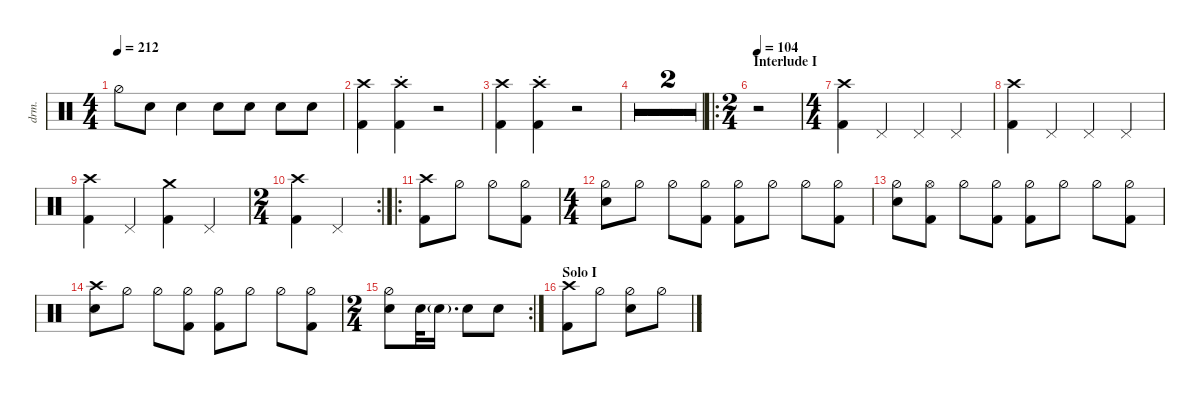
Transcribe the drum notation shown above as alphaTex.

\defaultSystemsLayout 4
\hideDynamics
\bracketExtendMode nobrackets
\track ("Drums" "drm.") {defaultSystemsLayout 4 multiBarRest instrument percussion}
\staff
\articulation defaults
\ts (4 4)
\tempo 212
\clef neutral
\ks c "Hi-Hat (half)".8{dy f} "Snare (hit) 2".8 "Snare (hit) 2".4 "Snare (hit) 2".8 "Snare (hit) 2".8 "Snare (hit) 2".8 "Snare (hit) 2".8
|
("Kick (hit) 2" "Crash high (hit)").4{dy ff} ("Kick (hit) 2" "Crash high (hit)"{st}).4 r.2 |
("Kick (hit) 2" "Crash high (hit)").4 ("Kick (hit) 2" "Crash high (hit)"{st}).4 r.2 |
r.1 |
r.1 |
\ro
\ts (2 4)
\beaming (8 2 2)
\section ("" "Interlude I")
\tempo 104
r.2 |
\ts (4 4)
\beaming (8 2 2 2 2)
("Kick (hit) 2" "Crash high (hit)").4{dy f} "Pedal Hi-Hat (hit)".4{dy mp} "Pedal Hi-Hat (hit)".4 "Pedal Hi-Hat (hit)".4 |
("Kick (hit) 2" "Crash high (hit)").4{dy f} "Pedal Hi-Hat (hit)".4{dy mp} "Pedal Hi-Hat (hit)".4 "Pedal Hi-Hat (hit)".4 |
("Kick (hit) 2" "Crash high (hit)").4{dy f} "Pedal Hi-Hat (hit)".4{dy mp} ("Kick (hit) 2" "Crash medium (hit)").4{dy f} "Pedal Hi-Hat (hit)".4{dy mp} |
\rc 2
\ts (2 4)
\beaming (8 2 2)
("Kick (hit) 2" "Crash high (hit)").4{dy f} "Pedal Hi-Hat (hit)".4{dy mp} |
\ro
("Kick (hit) 2" "Crash high (hit)").8{dy f} "Hi-Hat (half)".8 "Hi-Hat (half)".8 ("Hi-Hat (half)" "Kick (hit) 2").8 |
\ts (4 4)
\beaming (8 2 2 2 2)
("Hi-Hat (half)" "Snare (hit) 2").8 "Hi-Hat (half)".8 "Hi-Hat (half)".8 ("Kick (hit) 2" "Hi-Hat (half)").8 ("Hi-Hat (half)" "Kick (hit) 2").8 "Hi-Hat (half)".8 "Hi-Hat (half)".8 ("Hi-Hat (half)" "Kick (hit) 2").8 |
("Snare (hit) 2" "Hi-Hat (half)").8 ("Hi-Hat (open)" "Kick (hit) 2").8 "Hi-Hat (half)".8 ("Hi-Hat (half)" "Kick (hit) 2").8 ("Hi-Hat (half)" "Kick (hit) 2").8 "Hi-Hat (half)".8 "Hi-Hat (half)".8 ("Hi-Hat (half)" "Kick (hit) 2").8 |
("Snare (hit) 2" "Crash high (hit)").8 "Hi-Hat (half)".8 "Hi-Hat (half)".8 ("Kick (hit) 2" "Hi-Hat (half)").8 ("Hi-Hat (half)" "Kick (hit) 2").8 "Hi-Hat (half)".8 "Hi-Hat (half)".8 ("Hi-Hat (half)" "Kick (hit) 2").8 |
\rc 2
\ts (2 4)
\beaming (8 2 2)
("Snare (hit) 2" "Hi-Hat (half)").8 "Snare (hit) 2".32 "Snare (hit) 2"{g}.16{d dy mf} "Snare (hit) 2".8{dy f} "Snare (hit) 2".8 |
\section ("" "Solo I")
("Crash high (hit)" "Kick (hit) 2").8 "Hi-Hat (half)".8 ("Hi-Hat (half)" "Snare (hit) 2").8 "Hi-Hat (half)".8
